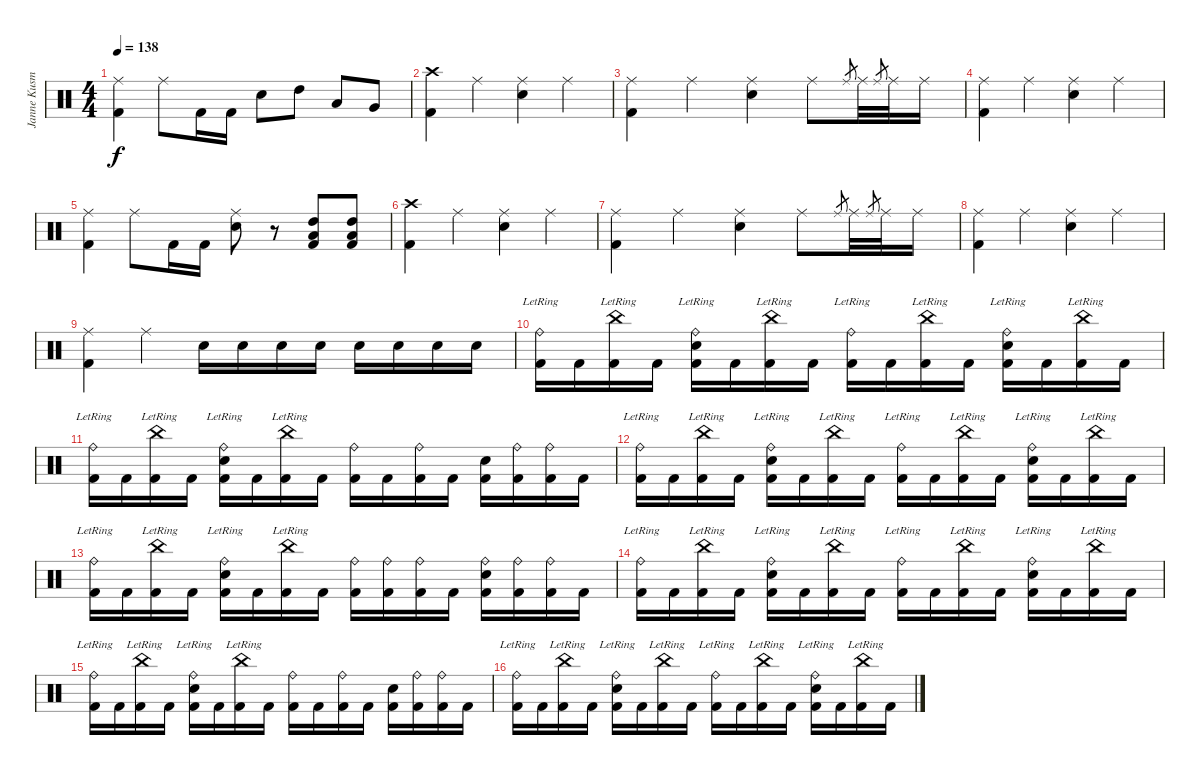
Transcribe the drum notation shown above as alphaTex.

\track ("Janne Kusmin" "Janne Kusm") {instrument percussion}
\staff {score}
\articulation defaults
\ts (4 4)
\tempo 138
\clef neutral
\ks c
("Ride (middle)" "Kick (hit) 2").4{dy f} "Ride (middle)".8 "Kick (hit) 2".16 "Kick (hit) 2".16 "Electric Snare (hit)".8 "High Tom (hit)".8 "Low Tom (hit)".8 "Very Low Tom (hit)".8 |
("Crash high (hit)" "Kick (hit) 2").4 "Ride (middle)".4 ("Ride (middle)" "Electric Snare (hit)").4 "Ride (middle)".4 |
("Ride (middle)" "Kick (hit) 2").4 "Ride (middle)".4 ("Ride (middle)" "Electric Snare (hit)").4 "Ride (middle)".8 "Ride (middle)".8{gr} "Ride (middle)".32 "Ride (middle)".8{gr} "Ride (middle)".32 "Ride (middle)".16 |
("Ride (middle)" "Kick (hit) 2").4 "Ride (middle)".4 ("Ride (middle)" "Electric Snare (hit)").4 "Ride (middle)".4 |
("Ride (middle)" "Kick (hit) 2").4 "Ride (middle)".8 "Kick (hit) 2".16 "Kick (hit) 2".16 ("Ride (middle)" "Electric Snare (hit)").8 r.8 ("High Tom (hit)" "Low Floor Tom (hit)" "Kick (hit) 2").8 ("High Tom (hit)" "Low Floor Tom (hit)" "Kick (hit) 2").8 |
("Crash high (hit)" "Kick (hit) 2").4 "Ride (middle)".4 ("Ride (middle)" "Electric Snare (hit)").4 "Ride (middle)".4 |
("Ride (middle)" "Kick (hit) 2").4 "Ride (middle)".4 ("Ride (middle)" "Electric Snare (hit)").4 "Ride (middle)".8 "Ride (middle)".8{gr} "Ride (middle)".32 "Ride (middle)".8{gr} "Ride (middle)".32 "Ride (middle)".16 |
("Ride (middle)" "Kick (hit) 2").4 "Ride (middle)".4 ("Ride (middle)" "Electric Snare (hit)").4 "Ride (middle)".4 |
("Ride (middle)" "Kick (hit) 2").4 "Ride (middle)".4 "Electric Snare (hit)".16 "Electric Snare (hit)".16 "Electric Snare (hit)".16 "Electric Snare (hit)".16 "Electric Snare (hit)".16 "Electric Snare (hit)".16 "Electric Snare (hit)".16 "Electric Snare (hit)".16 |
("Ride (bell)"{lr} "Kick (hit) 2").16 "Kick (hit) 2".16 ("China (hit)"{lr} "Kick (hit) 2").16 "Kick (hit) 2".16 ("Ride (bell)"{lr} "Electric Snare (hit)" "Kick (hit) 2").16 "Kick (hit) 2".16 ("China (hit)"{lr} "Kick (hit) 2").16 "Kick (hit) 2".16 ("Ride (bell)"{lr} "Kick (hit) 2").16 "Kick (hit) 2".16 ("China (hit)"{lr} "Kick (hit) 2").16 "Kick (hit) 2".16 ("Ride (bell)"{lr} "Electric Snare (hit)" "Kick (hit) 2").16 "Kick (hit) 2".16 ("China (hit)"{lr} "Kick (hit) 2").16 "Kick (hit) 2".16 |
("Ride (bell)"{lr} "Kick (hit) 2").16 "Kick (hit) 2".16 ("China (hit)"{lr} "Kick (hit) 2").16 "Kick (hit) 2".16 ("Ride (bell)"{lr} "Electric Snare (hit)" "Kick (hit) 2").16 "Kick (hit) 2".16 ("China (hit)"{lr} "Kick (hit) 2").16 "Kick (hit) 2".16 ("Ride (bell)" "Kick (hit) 2").16 "Kick (hit) 2".16 ("Ride (bell)" "Kick (hit) 2").16 "Kick (hit) 2".16 ("Electric Snare (hit)" "Kick (hit) 2").16 ("Ride (bell)" "Kick (hit) 2").16 ("Ride (bell)" "Kick (hit) 2").16 "Kick (hit) 2".16 |
("Ride (bell)"{lr} "Kick (hit) 2").16 "Kick (hit) 2".16 ("China (hit)"{lr} "Kick (hit) 2").16 "Kick (hit) 2".16 ("Ride (bell)"{lr} "Electric Snare (hit)" "Kick (hit) 2").16 "Kick (hit) 2".16 ("China (hit)"{lr} "Kick (hit) 2").16 "Kick (hit) 2".16 ("Ride (bell)"{lr} "Kick (hit) 2").16 "Kick (hit) 2".16 ("China (hit)"{lr} "Kick (hit) 2").16 "Kick (hit) 2".16 ("Ride (bell)"{lr} "Electric Snare (hit)" "Kick (hit) 2").16 "Kick (hit) 2".16 ("China (hit)"{lr} "Kick (hit) 2").16 "Kick (hit) 2".16 |
("Ride (bell)"{lr} "Kick (hit) 2").16 "Kick (hit) 2".16 ("China (hit)"{lr} "Kick (hit) 2").16 "Kick (hit) 2".16 ("Ride (bell)"{lr} "Electric Snare (hit)" "Kick (hit) 2").16 "Kick (hit) 2".16 ("China (hit)"{lr} "Kick (hit) 2").16 "Kick (hit) 2".16 ("Ride (bell)" "Kick (hit) 2").16 ("Ride (bell)" "Kick (hit) 2").16 ("Ride (bell)" "Kick (hit) 2").16 "Kick (hit) 2".16 ("Ride (bell)" "Electric Snare (hit)" "Kick (hit) 2").16 ("Ride (bell)" "Kick (hit) 2").16 ("Ride (bell)" "Kick (hit) 2").16 "Kick (hit) 2".16 |
("Ride (bell)"{lr} "Kick (hit) 2").16 "Kick (hit) 2".16 ("China (hit)"{lr} "Kick (hit) 2").16 "Kick (hit) 2".16 ("Ride (bell)"{lr} "Electric Snare (hit)" "Kick (hit) 2").16 "Kick (hit) 2".16 ("China (hit)"{lr} "Kick (hit) 2").16 "Kick (hit) 2".16 ("Ride (bell)"{lr} "Kick (hit) 2").16 "Kick (hit) 2".16 ("China (hit)"{lr} "Kick (hit) 2").16 "Kick (hit) 2".16 ("Ride (bell)"{lr} "Electric Snare (hit)" "Kick (hit) 2").16 "Kick (hit) 2".16 ("China (hit)"{lr} "Kick (hit) 2").16 "Kick (hit) 2".16 |
("Ride (bell)"{lr} "Kick (hit) 2").16 "Kick (hit) 2".16 ("China (hit)"{lr} "Kick (hit) 2").16 "Kick (hit) 2".16 ("Ride (bell)"{lr} "Electric Snare (hit)" "Kick (hit) 2").16 "Kick (hit) 2".16 ("China (hit)"{lr} "Kick (hit) 2").16 "Kick (hit) 2".16 ("Ride (bell)" "Kick (hit) 2").16 "Kick (hit) 2".16 ("Ride (bell)" "Kick (hit) 2").16 "Kick (hit) 2".16 ("Electric Snare (hit)" "Kick (hit) 2").16 ("Ride (bell)" "Kick (hit) 2").16 ("Ride (bell)" "Kick (hit) 2").16 "Kick (hit) 2".16 |
("Ride (bell)"{lr} "Kick (hit) 2").16 "Kick (hit) 2".16 ("China (hit)"{lr} "Kick (hit) 2").16 "Kick (hit) 2".16 ("Ride (bell)"{lr} "Electric Snare (hit)" "Kick (hit) 2").16 "Kick (hit) 2".16 ("China (hit)"{lr} "Kick (hit) 2").16 "Kick (hit) 2".16 ("Ride (bell)"{lr} "Kick (hit) 2").16 "Kick (hit) 2".16 ("China (hit)"{lr} "Kick (hit) 2").16 "Kick (hit) 2".16 ("Ride (bell)"{lr} "Electric Snare (hit)" "Kick (hit) 2").16 "Kick (hit) 2".16 ("China (hit)"{lr} "Kick (hit) 2").16 "Kick (hit) 2".16
